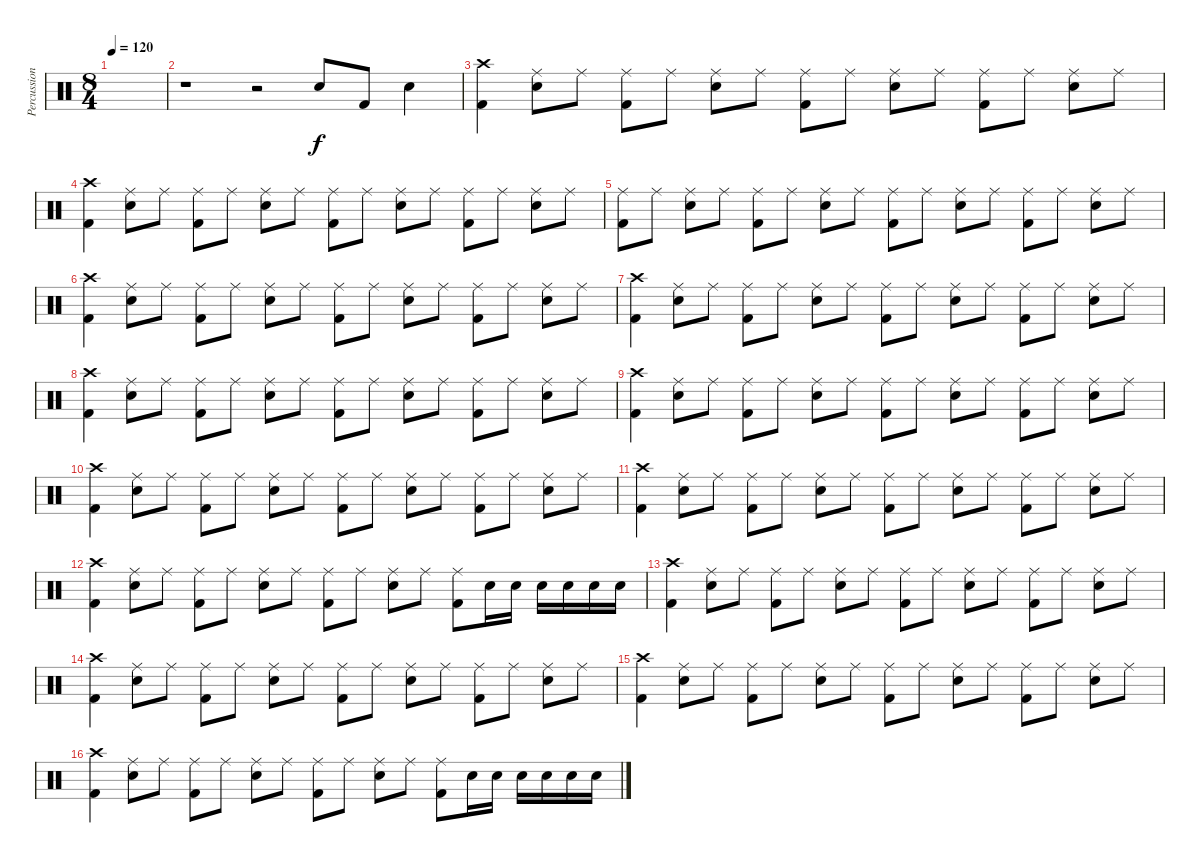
\track ("Percussion" "Percussion") {instrument percussion}
\staff {score}
\articulation defaults
\ts (8 4)
\tempo 120
\clef neutral
\ks c
|
r.1 r.2 "Snare (hit) 2".8 "Kick (hit) 2".8 "Snare (hit) 2".4 |
("Kick (hit) 2" "Crash high (hit)").4 ("Snare (hit) 2" "Ride (middle)").8 "Ride (middle)".8 ("Kick (hit) 2" "Ride (middle)").8 "Ride (middle)".8 ("Snare (hit) 2" "Ride (middle)").8 "Ride (middle)".8 ("Kick (hit) 2" "Ride (middle)").8 "Ride (middle)".8 ("Snare (hit) 2" "Ride (middle)").8 "Ride (middle)".8 ("Kick (hit) 2" "Ride (middle)").8 "Ride (middle)".8 ("Snare (hit) 2" "Ride (middle)").8 "Ride (middle)".8 |
("Kick (hit) 2" "Crash high (hit)").4 ("Snare (hit) 2" "Ride (middle)").8 "Ride (middle)".8 ("Kick (hit) 2" "Ride (middle)").8 "Ride (middle)".8 ("Snare (hit) 2" "Ride (middle)").8 "Ride (middle)".8 ("Kick (hit) 2" "Ride (middle)").8 "Ride (middle)".8 ("Snare (hit) 2" "Ride (middle)").8 "Ride (middle)".8 ("Kick (hit) 2" "Ride (middle)").8 "Ride (middle)".8 ("Snare (hit) 2" "Ride (middle)").8 "Ride (middle)".8 |
("Kick (hit) 2" "Ride (middle)").8 "Ride (middle)".8 ("Snare (hit) 2" "Ride (middle)").8 "Ride (middle)".8 ("Kick (hit) 2" "Ride (middle)").8 "Ride (middle)".8 ("Snare (hit) 2" "Ride (middle)").8 "Ride (middle)".8 ("Kick (hit) 2" "Ride (middle)").8 "Ride (middle)".8 ("Snare (hit) 2" "Ride (middle)").8 "Ride (middle)".8 ("Kick (hit) 2" "Ride (middle)").8 "Ride (middle)".8 ("Snare (hit) 2" "Ride (middle)").8 "Ride (middle)".8 |
("Kick (hit) 2" "Crash high (hit)").4 ("Snare (hit) 2" "Ride (middle)").8 "Ride (middle)".8 ("Kick (hit) 2" "Ride (middle)").8 "Ride (middle)".8 ("Snare (hit) 2" "Ride (middle)").8 "Ride (middle)".8 ("Kick (hit) 2" "Ride (middle)").8 "Ride (middle)".8 ("Snare (hit) 2" "Ride (middle)").8 "Ride (middle)".8 ("Kick (hit) 2" "Ride (middle)").8 "Ride (middle)".8 ("Snare (hit) 2" "Ride (middle)").8 "Ride (middle)".8 |
("Kick (hit) 2" "Crash high (hit)").4 ("Snare (hit) 2" "Ride (middle)").8 "Ride (middle)".8 ("Kick (hit) 2" "Ride (middle)").8 "Ride (middle)".8 ("Snare (hit) 2" "Ride (middle)").8 "Ride (middle)".8 ("Kick (hit) 2" "Ride (middle)").8 "Ride (middle)".8 ("Snare (hit) 2" "Ride (middle)").8 "Ride (middle)".8 ("Kick (hit) 2" "Ride (middle)").8 "Ride (middle)".8 ("Snare (hit) 2" "Ride (middle)").8 "Ride (middle)".8 |
("Kick (hit) 2" "Crash high (hit)").4 ("Snare (hit) 2" "Ride (middle)").8 "Ride (middle)".8 ("Kick (hit) 2" "Ride (middle)").8 "Ride (middle)".8 ("Snare (hit) 2" "Ride (middle)").8 "Ride (middle)".8 ("Kick (hit) 2" "Ride (middle)").8 "Ride (middle)".8 ("Snare (hit) 2" "Ride (middle)").8 "Ride (middle)".8 ("Kick (hit) 2" "Ride (middle)").8 "Ride (middle)".8 ("Snare (hit) 2" "Ride (middle)").8 "Ride (middle)".8 |
("Kick (hit) 2" "Crash high (hit)").4 ("Snare (hit) 2" "Ride (middle)").8 "Ride (middle)".8 ("Kick (hit) 2" "Ride (middle)").8 "Ride (middle)".8 ("Snare (hit) 2" "Ride (middle)").8 "Ride (middle)".8 ("Kick (hit) 2" "Ride (middle)").8 "Ride (middle)".8 ("Snare (hit) 2" "Ride (middle)").8 "Ride (middle)".8 ("Kick (hit) 2" "Ride (middle)").8 "Ride (middle)".8 ("Snare (hit) 2" "Ride (middle)").8 "Ride (middle)".8 |
("Kick (hit) 2" "Crash high (hit)").4 ("Snare (hit) 2" "Ride (middle)").8 "Ride (middle)".8 ("Kick (hit) 2" "Ride (middle)").8 "Ride (middle)".8 ("Snare (hit) 2" "Ride (middle)").8 "Ride (middle)".8 ("Kick (hit) 2" "Ride (middle)").8 "Ride (middle)".8 ("Snare (hit) 2" "Ride (middle)").8 "Ride (middle)".8 ("Kick (hit) 2" "Ride (middle)").8 "Ride (middle)".8 ("Snare (hit) 2" "Ride (middle)").8 "Ride (middle)".8 |
("Kick (hit) 2" "Crash high (hit)").4 ("Snare (hit) 2" "Ride (middle)").8 "Ride (middle)".8 ("Kick (hit) 2" "Ride (middle)").8 "Ride (middle)".8 ("Snare (hit) 2" "Ride (middle)").8 "Ride (middle)".8 ("Kick (hit) 2" "Ride (middle)").8 "Ride (middle)".8 ("Snare (hit) 2" "Ride (middle)").8 "Ride (middle)".8 ("Kick (hit) 2" "Ride (middle)").8 "Ride (middle)".8 ("Snare (hit) 2" "Ride (middle)").8 "Ride (middle)".8 |
("Kick (hit) 2" "Crash high (hit)").4 ("Snare (hit) 2" "Ride (middle)").8 "Ride (middle)".8 ("Kick (hit) 2" "Ride (middle)").8 "Ride (middle)".8 ("Snare (hit) 2" "Ride (middle)").8 "Ride (middle)".8 ("Kick (hit) 2" "Ride (middle)").8 "Ride (middle)".8 ("Snare (hit) 2" "Ride (middle)").8 "Ride (middle)".8 ("Kick (hit) 2" "Ride (middle)").8 "Snare (hit) 2".16 "Snare (hit) 2".16 "Snare (hit) 2".16 "Snare (hit) 2".16 "Snare (hit) 2".16 "Snare (hit) 2".16 |
("Kick (hit) 2" "Crash high (hit)").4 ("Snare (hit) 2" "Ride (middle)").8 "Ride (middle)".8 ("Kick (hit) 2" "Ride (middle)").8 "Ride (middle)".8 ("Snare (hit) 2" "Ride (middle)").8 "Ride (middle)".8 ("Kick (hit) 2" "Ride (middle)").8 "Ride (middle)".8 ("Snare (hit) 2" "Ride (middle)").8 "Ride (middle)".8 ("Kick (hit) 2" "Ride (middle)").8 "Ride (middle)".8 ("Snare (hit) 2" "Ride (middle)").8 "Ride (middle)".8 |
("Kick (hit) 2" "Crash high (hit)").4 ("Snare (hit) 2" "Ride (middle)").8 "Ride (middle)".8 ("Kick (hit) 2" "Ride (middle)").8 "Ride (middle)".8 ("Snare (hit) 2" "Ride (middle)").8 "Ride (middle)".8 ("Kick (hit) 2" "Ride (middle)").8 "Ride (middle)".8 ("Snare (hit) 2" "Ride (middle)").8 "Ride (middle)".8 ("Kick (hit) 2" "Ride (middle)").8 "Ride (middle)".8 ("Snare (hit) 2" "Ride (middle)").8 "Ride (middle)".8 |
("Kick (hit) 2" "Crash high (hit)").4 ("Snare (hit) 2" "Ride (middle)").8 "Ride (middle)".8 ("Kick (hit) 2" "Ride (middle)").8 "Ride (middle)".8 ("Snare (hit) 2" "Ride (middle)").8 "Ride (middle)".8 ("Kick (hit) 2" "Ride (middle)").8 "Ride (middle)".8 ("Snare (hit) 2" "Ride (middle)").8 "Ride (middle)".8 ("Kick (hit) 2" "Ride (middle)").8 "Ride (middle)".8 ("Snare (hit) 2" "Ride (middle)").8 "Ride (middle)".8 |
("Kick (hit) 2" "Crash high (hit)").4 ("Snare (hit) 2" "Ride (middle)").8 "Ride (middle)".8 ("Kick (hit) 2" "Ride (middle)").8 "Ride (middle)".8 ("Snare (hit) 2" "Ride (middle)").8 "Ride (middle)".8 ("Kick (hit) 2" "Ride (middle)").8 "Ride (middle)".8 ("Snare (hit) 2" "Ride (middle)").8 "Ride (middle)".8 ("Kick (hit) 2" "Ride (middle)").8 "Snare (hit) 2".16 "Snare (hit) 2".16 "Snare (hit) 2".16 "Snare (hit) 2".16 "Snare (hit) 2".16 "Snare (hit) 2".16
